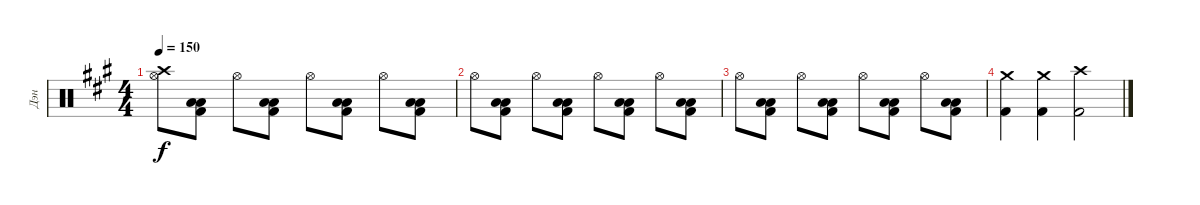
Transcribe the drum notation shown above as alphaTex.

\track ("Дэн" "Дэн") {instrument percussion}
\staff {score}
\articulation defaults
\ts (4 4)
\tempo 150
\clef neutral
\ks f#minor
("Crash high (hit)" "Hi-Hat (open)").8{dy f} ("Low Tom (hit)" "Low Tom (hit)" "Kick (hit) 2").8 "Hi-Hat (open)".8 ("Low Tom (hit)" "Low Tom (hit)" "Kick (hit) 2").8 "Hi-Hat (open)".8 ("Low Tom (hit)" "Low Tom (hit)" "Kick (hit) 2").8 "Hi-Hat (open)".8 ("Low Tom (hit)" "Low Tom (hit)" "Kick (hit) 2").8 |
"Hi-Hat (open)".8 ("Low Tom (hit)" "Low Tom (hit)" "Kick (hit) 2").8 "Hi-Hat (open)".8 ("Low Tom (hit)" "Low Tom (hit)" "Kick (hit) 2").8 "Hi-Hat (open)".8 ("Low Tom (hit)" "Low Tom (hit)" "Kick (hit) 2").8 "Hi-Hat (open)".8 ("Low Tom (hit)" "Low Tom (hit)" "Kick (hit) 2").8 |
"Hi-Hat (open)".8 ("Low Tom (hit)" "Low Tom (hit)" "Kick (hit) 2").8 "Hi-Hat (open)".8 ("Low Tom (hit)" "Low Tom (hit)" "Kick (hit) 2").8 "Hi-Hat (open)".8 ("Low Tom (hit)" "Low Tom (hit)" "Kick (hit) 2").8 "Hi-Hat (open)".8 ("Low Tom (hit)" "Low Tom (hit)" "Kick (hit) 2").8 |
("Crash medium (hit)" "Kick (hit) 2").4 ("Crash medium (hit)" "Kick (hit) 2").4 ("Crash high (hit)" "Kick (hit) 2").2
